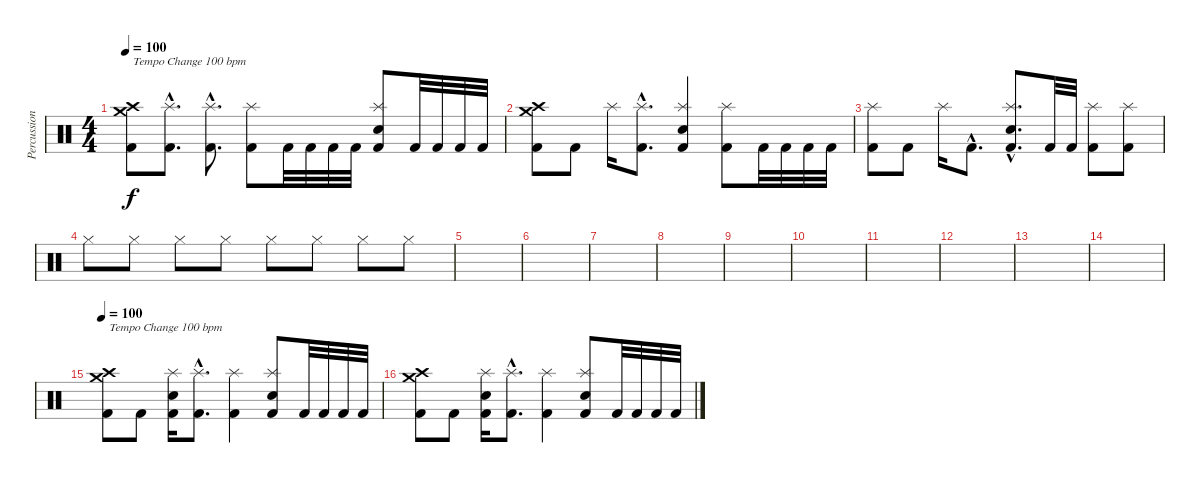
\track ("Percussion" "Percussion") {instrument percussion}
\staff {score}
\articulation defaults
\ts (4 4)
\tempo 100
\clef neutral
\ks c
("Kick (hit) 2" "Crash high (hit)" "Crash medium (hit)").8{txt "Tempo Change 100 bpm" dy f} ("Kick (hit) 2"{hac} "Splash (hit)"{hac}).8{d} ("Kick (hit) 2"{hac} "Splash (hit)"{hac}).8{d} ("Kick (hit) 2" "Splash (hit)").8 "Kick (hit) 2".32 "Kick (hit) 2".32 "Kick (hit) 2".32 "Kick (hit) 2".32 ("Kick (hit) 2" "Splash (hit)" "Snare (hit) 2").8 "Kick (hit) 2".32 "Kick (hit) 2".32 "Kick (hit) 2".32 "Kick (hit) 2".32 |
("Kick (hit) 2" "Crash high (hit)" "Crash medium (hit)").8 "Kick (hit) 2".8 "Splash (hit)".16 ("Kick (hit) 2"{hac} "Splash (hit)"{hac}).8{d} ("Kick (hit) 2" "Splash (hit)" "Snare (hit) 2").4 ("Kick (hit) 2" "Splash (hit)").8 "Kick (hit) 2".32 "Kick (hit) 2".32 "Kick (hit) 2".32 "Kick (hit) 2".32 |
("Kick (hit) 2" "Splash (hit)").8 "Kick (hit) 2".8 "Splash (hit)".16 "Kick (hit) 2"{hac}.8{d} ("Kick (hit) 2"{hac} "Splash (hit)"{hac} "Snare (hit) 2"{hac}).8{d} "Kick (hit) 2".32 "Kick (hit) 2".32 ("Kick (hit) 2" "Splash (hit)").8 ("Kick (hit) 2" "Splash (hit)").8 |
"Hi-Hat (closed)".8 "Hi-Hat (closed)".8 "Hi-Hat (closed)".8 "Hi-Hat (closed)".8 "Hi-Hat (closed)".8 "Hi-Hat (closed)".8 "Hi-Hat (closed)".8 "Hi-Hat (closed)".8 |
|
|
|
|
|
|
|
|
|
|
\tempo 100
("Kick (hit) 2" "Crash high (hit)" "Crash medium (hit)").8{txt "Tempo Change 100 bpm"} "Kick (hit) 2".8 ("Kick (hit) 2" "Snare (hit) 2" "Splash (hit)").16 ("Kick (hit) 2"{hac} "Splash (hit)"{hac}).8{d} ("Kick (hit) 2" "Splash (hit)").4 ("Kick (hit) 2" "Splash (hit)" "Snare (hit) 2").8 "Kick (hit) 2".32 "Kick (hit) 2".32 "Kick (hit) 2".32 "Kick (hit) 2".32 |
("Kick (hit) 2" "Crash high (hit)" "Crash medium (hit)").8 "Kick (hit) 2".8 ("Kick (hit) 2" "Snare (hit) 2" "Splash (hit)").16 ("Kick (hit) 2"{hac} "Splash (hit)"{hac}).8{d} ("Kick (hit) 2" "Splash (hit)").4 ("Kick (hit) 2" "Splash (hit)" "Snare (hit) 2").8 "Kick (hit) 2".32 "Kick (hit) 2".32 "Kick (hit) 2".32 "Kick (hit) 2".32
